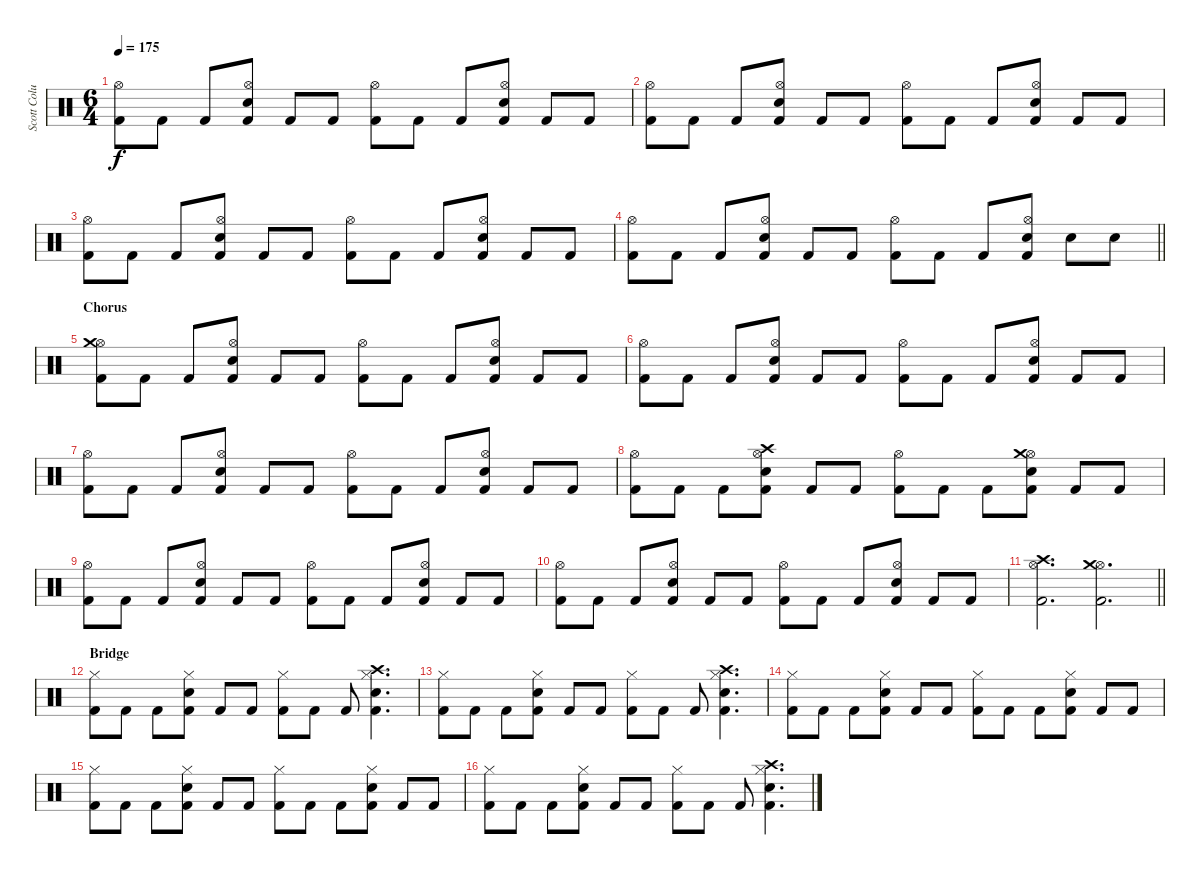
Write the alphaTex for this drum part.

\track ("Scott Columbus" "Scott Colu") {instrument percussion}
\staff {score}
\articulation defaults
\ts (6 4)
\tempo 175
\clef neutral
\ks c
("Kick (hit) 2" "Hi-Hat (open)").8{dy f} "Kick (hit) 2".8 "Kick (hit) 2".8 ("Kick (hit) 2" "Snare (hit) 2" "Hi-Hat (open)").8 "Kick (hit) 2".8 "Kick (hit) 2".8 ("Kick (hit) 2" "Hi-Hat (open)").8 "Kick (hit) 2".8 "Kick (hit) 2".8 ("Kick (hit) 2" "Snare (hit) 2" "Hi-Hat (open)").8 "Kick (hit) 2".8 "Kick (hit) 2".8 |
("Kick (hit) 2" "Hi-Hat (open)").8 "Kick (hit) 2".8 "Kick (hit) 2".8 ("Kick (hit) 2" "Snare (hit) 2" "Hi-Hat (open)").8 "Kick (hit) 2".8 "Kick (hit) 2".8 ("Kick (hit) 2" "Hi-Hat (open)").8 "Kick (hit) 2".8 "Kick (hit) 2".8 ("Kick (hit) 2" "Snare (hit) 2" "Hi-Hat (open)").8 "Kick (hit) 2".8 "Kick (hit) 2".8 |
("Kick (hit) 2" "Hi-Hat (open)").8 "Kick (hit) 2".8 "Kick (hit) 2".8 ("Kick (hit) 2" "Snare (hit) 2" "Hi-Hat (open)").8 "Kick (hit) 2".8 "Kick (hit) 2".8 ("Kick (hit) 2" "Hi-Hat (open)").8 "Kick (hit) 2".8 "Kick (hit) 2".8 ("Kick (hit) 2" "Snare (hit) 2" "Hi-Hat (open)").8 "Kick (hit) 2".8 "Kick (hit) 2".8 |
\barLineRight lightlight
("Kick (hit) 2" "Hi-Hat (open)").8 "Kick (hit) 2".8 "Kick (hit) 2".8 ("Kick (hit) 2" "Snare (hit) 2" "Hi-Hat (open)").8 "Kick (hit) 2".8 "Kick (hit) 2".8 ("Kick (hit) 2" "Hi-Hat (open)").8 "Kick (hit) 2".8 "Kick (hit) 2".8 ("Kick (hit) 2" "Snare (hit) 2" "Hi-Hat (open)").8 "Snare (hit) 2".8 "Snare (hit) 2".8 |
\section ("" "Chorus")
("Kick (hit) 2" "Hi-Hat (open)" "Crash medium (hit)").8 "Kick (hit) 2".8 "Kick (hit) 2".8 ("Kick (hit) 2" "Snare (hit) 2" "Hi-Hat (open)").8 "Kick (hit) 2".8 "Kick (hit) 2".8 ("Kick (hit) 2" "Hi-Hat (open)").8 "Kick (hit) 2".8 "Kick (hit) 2".8 ("Kick (hit) 2" "Snare (hit) 2" "Hi-Hat (open)").8 "Kick (hit) 2".8 "Kick (hit) 2".8 |
("Kick (hit) 2" "Hi-Hat (open)").8 "Kick (hit) 2".8 "Kick (hit) 2".8 ("Kick (hit) 2" "Snare (hit) 2" "Hi-Hat (open)").8 "Kick (hit) 2".8 "Kick (hit) 2".8 ("Kick (hit) 2" "Hi-Hat (open)").8 "Kick (hit) 2".8 "Kick (hit) 2".8 ("Kick (hit) 2" "Snare (hit) 2" "Hi-Hat (open)").8 "Kick (hit) 2".8 "Kick (hit) 2".8 |
("Kick (hit) 2" "Hi-Hat (open)").8 "Kick (hit) 2".8 "Kick (hit) 2".8 ("Kick (hit) 2" "Snare (hit) 2" "Hi-Hat (open)").8 "Kick (hit) 2".8 "Kick (hit) 2".8 ("Kick (hit) 2" "Hi-Hat (open)").8 "Kick (hit) 2".8 "Kick (hit) 2".8 ("Kick (hit) 2" "Snare (hit) 2" "Hi-Hat (open)").8 "Kick (hit) 2".8 "Kick (hit) 2".8 |
("Kick (hit) 2" "Hi-Hat (open)").8 "Kick (hit) 2".8 "Kick (hit) 2".8 ("Kick (hit) 2" "Snare (hit) 2" "Hi-Hat (open)" "Crash high (hit)").8 "Kick (hit) 2".8 "Kick (hit) 2".8 ("Kick (hit) 2" "Hi-Hat (open)").8 "Kick (hit) 2".8 "Kick (hit) 2".8 ("Kick (hit) 2" "Snare (hit) 2" "Hi-Hat (open)" "Crash medium (hit)").8 "Kick (hit) 2".8 "Kick (hit) 2".8 |
("Kick (hit) 2" "Hi-Hat (open)").8 "Kick (hit) 2".8 "Kick (hit) 2".8 ("Kick (hit) 2" "Snare (hit) 2" "Hi-Hat (open)").8 "Kick (hit) 2".8 "Kick (hit) 2".8 ("Kick (hit) 2" "Hi-Hat (open)").8 "Kick (hit) 2".8 "Kick (hit) 2".8 ("Kick (hit) 2" "Snare (hit) 2" "Hi-Hat (open)").8 "Kick (hit) 2".8 "Kick (hit) 2".8 |
("Kick (hit) 2" "Hi-Hat (open)").8 "Kick (hit) 2".8 "Kick (hit) 2".8 ("Kick (hit) 2" "Snare (hit) 2" "Hi-Hat (open)").8 "Kick (hit) 2".8 "Kick (hit) 2".8 ("Kick (hit) 2" "Hi-Hat (open)").8 "Kick (hit) 2".8 "Kick (hit) 2".8 ("Kick (hit) 2" "Snare (hit) 2" "Hi-Hat (open)").8 "Kick (hit) 2".8 "Kick (hit) 2".8 |
\barLineRight lightlight
("Kick (hit) 2" "Hi-Hat (open)" "Crash high (hit)").2{d} ("Kick (hit) 2" "Hi-Hat (open)" "Crash medium (hit)").2{d} |
\section ("" "Bridge")
("Kick (hit) 2" "Hi-Hat (closed)").8 "Kick (hit) 2".8 "Kick (hit) 2".8 ("Kick (hit) 2" "Snare (hit) 2" "Hi-Hat (closed)").8 "Kick (hit) 2".8 "Kick (hit) 2".8 ("Kick (hit) 2" "Hi-Hat (closed)").8 "Kick (hit) 2".8 "Kick (hit) 2".8 ("Kick (hit) 2" "Snare (hit) 2" "Hi-Hat (closed)" "Crash high (hit)").4{d} |
("Kick (hit) 2" "Hi-Hat (closed)").8 "Kick (hit) 2".8 "Kick (hit) 2".8 ("Kick (hit) 2" "Snare (hit) 2" "Hi-Hat (closed)").8 "Kick (hit) 2".8 "Kick (hit) 2".8 ("Kick (hit) 2" "Hi-Hat (closed)").8 "Kick (hit) 2".8 "Kick (hit) 2".8 ("Kick (hit) 2" "Snare (hit) 2" "Hi-Hat (closed)" "Crash high (hit)").4{d} |
("Kick (hit) 2" "Hi-Hat (closed)").8 "Kick (hit) 2".8 "Kick (hit) 2".8 ("Kick (hit) 2" "Snare (hit) 2" "Hi-Hat (closed)").8 "Kick (hit) 2".8 "Kick (hit) 2".8 ("Kick (hit) 2" "Hi-Hat (closed)").8 "Kick (hit) 2".8 "Kick (hit) 2".8 ("Kick (hit) 2" "Snare (hit) 2" "Hi-Hat (closed)").8 "Kick (hit) 2".8 "Kick (hit) 2".8 |
("Kick (hit) 2" "Hi-Hat (closed)").8 "Kick (hit) 2".8 "Kick (hit) 2".8 ("Kick (hit) 2" "Snare (hit) 2" "Hi-Hat (closed)").8 "Kick (hit) 2".8 "Kick (hit) 2".8 ("Kick (hit) 2" "Hi-Hat (closed)").8 "Kick (hit) 2".8 "Kick (hit) 2".8 ("Kick (hit) 2" "Snare (hit) 2" "Hi-Hat (closed)").8 "Kick (hit) 2".8 "Kick (hit) 2".8 |
("Kick (hit) 2" "Hi-Hat (closed)").8 "Kick (hit) 2".8 "Kick (hit) 2".8 ("Kick (hit) 2" "Snare (hit) 2" "Hi-Hat (closed)").8 "Kick (hit) 2".8 "Kick (hit) 2".8 ("Kick (hit) 2" "Hi-Hat (closed)").8 "Kick (hit) 2".8 "Kick (hit) 2".8 ("Kick (hit) 2" "Snare (hit) 2" "Hi-Hat (closed)" "Crash high (hit)").4{d}
